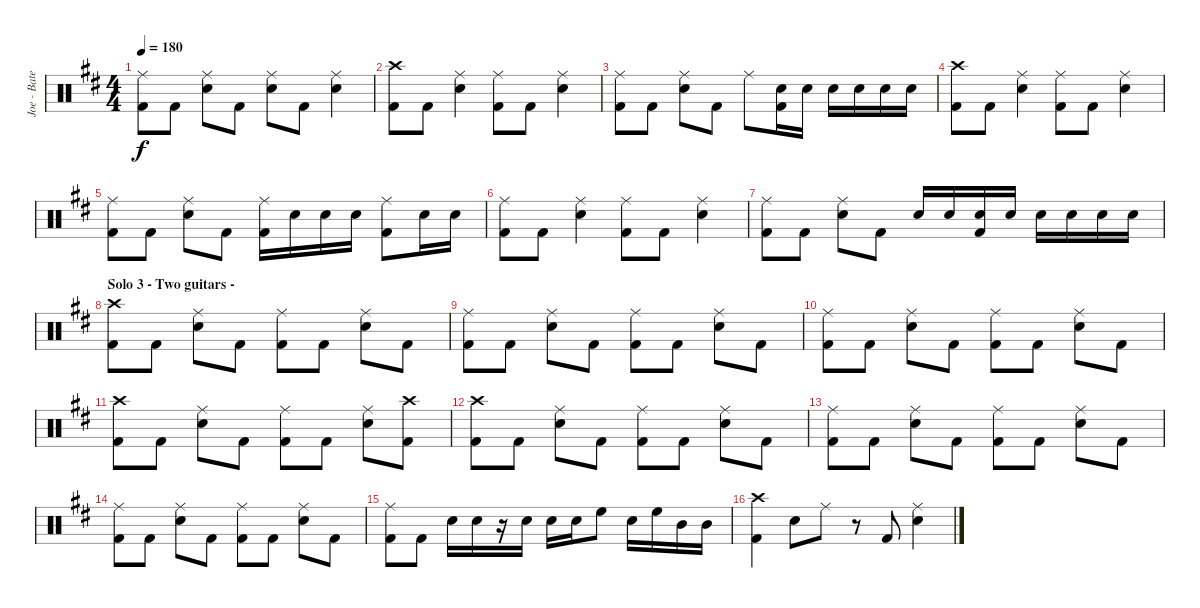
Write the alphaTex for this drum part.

\track ("Joe - Batería -" "Joe - Bate") {instrument percussion}
\staff {score}
\articulation defaults
\ts (4 4)
\tempo 180
\clef neutral
\ks bminor
("Ride (middle)" "Kick (hit) 2").8{dy f} "Kick (hit) 2".8 ("Ride (middle)" "Snare (hit) 2").8 "Kick (hit) 2".8 ("Ride (middle)" "Snare (hit) 2").8 "Kick (hit) 2".8 ("Ride (middle)" "Snare (hit) 2").4 |
("Crash high (hit)" "Kick (hit) 2").8 "Kick (hit) 2".8 ("Ride (middle)" "Snare (hit) 2").4 ("Ride (middle)" "Kick (hit) 2").8 "Kick (hit) 2".8 ("Ride (middle)" "Snare (hit) 2").4 |
("Ride (middle)" "Kick (hit) 2").8 "Kick (hit) 2".8 ("Ride (middle)" "Snare (hit) 2").8 "Kick (hit) 2".8 "Ride (middle)".8 ("Snare (hit) 2" "Kick (hit) 2").16 "Snare (hit) 2".16 "Snare (hit) 2".16 "Snare (hit) 2".16 "Snare (hit) 2".16 "Snare (hit) 2".16 |
("Crash high (hit)" "Kick (hit) 2").8 "Kick (hit) 2".8 ("Ride (middle)" "Snare (hit) 2").4 ("Ride (middle)" "Kick (hit) 2").8 "Kick (hit) 2".8 ("Ride (middle)" "Snare (hit) 2").4 |
("Ride (middle)" "Kick (hit) 2").8 "Kick (hit) 2".8 ("Ride (middle)" "Snare (hit) 2").8 "Kick (hit) 2".8 ("Ride (middle)" "Kick (hit) 2").16 "Snare (hit) 2".16 "Snare (hit) 2".16 "Snare (hit) 2".16 ("Ride (middle)" "Kick (hit) 2").8 "Snare (hit) 2".16 "Snare (hit) 2".16 |
("Ride (middle)" "Kick (hit) 2").8 "Kick (hit) 2".8 ("Ride (middle)" "Snare (hit) 2").4 ("Ride (middle)" "Kick (hit) 2").8 "Kick (hit) 2".8 ("Ride (middle)" "Snare (hit) 2").4 |
("Ride (middle)" "Kick (hit) 2").8 "Kick (hit) 2".8 ("Ride (middle)" "Snare (hit) 2").8 "Kick (hit) 2".8 "Snare (hit) 2".16 "Snare (hit) 2".16 ("Snare (hit) 2" "Kick (hit) 2").16 "Snare (hit) 2".16 "Snare (hit) 2".16 "Snare (hit) 2".16 "Snare (hit) 2".16 "Snare (hit) 2".16 |
\section ("" "Solo 3 - Two guitars -")
("Crash high (hit)" "Kick (hit) 2").8 "Kick (hit) 2".8 ("Ride (middle)" "Snare (hit) 2").8 "Kick (hit) 2".8 ("Ride (middle)" "Kick (hit) 2").8 "Kick (hit) 2".8 ("Ride (middle)" "Snare (hit) 2").8 "Kick (hit) 2".8 |
("Ride (middle)" "Kick (hit) 2").8 "Kick (hit) 2".8 ("Ride (middle)" "Snare (hit) 2").8 "Kick (hit) 2".8 ("Ride (middle)" "Kick (hit) 2").8 "Kick (hit) 2".8 ("Ride (middle)" "Snare (hit) 2").8 "Kick (hit) 2".8 |
("Ride (middle)" "Kick (hit) 2").8 "Kick (hit) 2".8 ("Ride (middle)" "Snare (hit) 2").8 "Kick (hit) 2".8 ("Ride (middle)" "Kick (hit) 2").8 "Kick (hit) 2".8 ("Ride (middle)" "Snare (hit) 2").8 "Kick (hit) 2".8 |
("Crash high (hit)" "Kick (hit) 2").8 "Kick (hit) 2".8 ("Ride (middle)" "Snare (hit) 2").8 "Kick (hit) 2".8 ("Ride (middle)" "Kick (hit) 2").8 "Kick (hit) 2".8 ("Ride (middle)" "Snare (hit) 2").8 ("Crash high (hit)" "Kick (hit) 2").8 |
("Crash high (hit)" "Kick (hit) 2").8 "Kick (hit) 2".8 ("Ride (middle)" "Snare (hit) 2").8 "Kick (hit) 2".8 ("Ride (middle)" "Kick (hit) 2").8 "Kick (hit) 2".8 ("Ride (middle)" "Snare (hit) 2").8 "Kick (hit) 2".8 |
("Ride (middle)" "Kick (hit) 2").8 "Kick (hit) 2".8 ("Ride (middle)" "Snare (hit) 2").8 "Kick (hit) 2".8 ("Ride (middle)" "Kick (hit) 2").8 "Kick (hit) 2".8 ("Ride (middle)" "Snare (hit) 2").8 "Kick (hit) 2".8 |
("Ride (middle)" "Kick (hit) 2").8 "Kick (hit) 2".8 ("Ride (middle)" "Snare (hit) 2").8 "Kick (hit) 2".8 ("Ride (middle)" "Kick (hit) 2").8 "Kick (hit) 2".8 ("Ride (middle)" "Snare (hit) 2").8 "Kick (hit) 2".8 |
("Ride (middle)" "Kick (hit) 2").8 "Kick (hit) 2".8 "Snare (hit) 2".16 "Snare (hit) 2".16 r.16 "Snare (hit) 2".16 "Snare (hit) 2".16 "Snare (hit) 2".16 "High Floor Tom (hit)".8 "Snare (hit) 2".16 "High Floor Tom (hit)".16 "Mid Tom (hit)".16 "Mid Tom (hit)".16 |
("Crash high (hit)" "Kick (hit) 2").4 "Snare (hit) 2".8 "Ride (middle)".8 r.8 "Kick (hit) 2".8 ("Ride (middle)" "Snare (hit) 2").4
